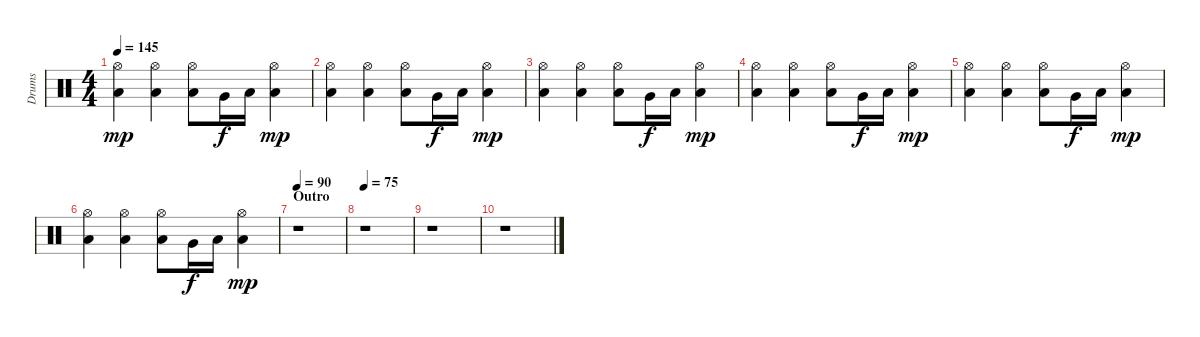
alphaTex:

\track ("Drums" "Drums") {instrument percussion}
\staff {score}
\articulation defaults
\ts (4 4)
\tempo 145
\clef neutral
\ks c
("Hi-Hat (open)" "Low Floor Tom (hit)").4{dy mp} ("Hi-Hat (open)" "Low Floor Tom (hit)").4 ("Hi-Hat (open)" "Low Floor Tom (hit)").8 "Very Low Tom (hit)".16{dy f} "Low Floor Tom (hit)".16 ("Hi-Hat (open)" "Low Floor Tom (hit)").4{dy mp} |
("Hi-Hat (open)" "Low Floor Tom (hit)").4 ("Hi-Hat (open)" "Low Floor Tom (hit)").4 ("Hi-Hat (open)" "Low Floor Tom (hit)").8 "Very Low Tom (hit)".16{dy f} "Low Floor Tom (hit)".16 ("Hi-Hat (open)" "Low Floor Tom (hit)").4{dy mp} |
("Hi-Hat (open)" "Low Floor Tom (hit)").4 ("Hi-Hat (open)" "Low Floor Tom (hit)").4 ("Hi-Hat (open)" "Low Floor Tom (hit)").8 "Very Low Tom (hit)".16{dy f} "Low Floor Tom (hit)".16 ("Hi-Hat (open)" "Low Floor Tom (hit)").4{dy mp} |
("Hi-Hat (open)" "Low Floor Tom (hit)").4 ("Hi-Hat (open)" "Low Floor Tom (hit)").4 ("Hi-Hat (open)" "Low Floor Tom (hit)").8 "Very Low Tom (hit)".16{dy f} "Low Floor Tom (hit)".16 ("Hi-Hat (open)" "Low Floor Tom (hit)").4{dy mp} |
("Hi-Hat (open)" "Low Floor Tom (hit)").4 ("Hi-Hat (open)" "Low Floor Tom (hit)").4 ("Hi-Hat (open)" "Low Floor Tom (hit)").8 "Very Low Tom (hit)".16{dy f} "Low Floor Tom (hit)".16 ("Hi-Hat (open)" "Low Floor Tom (hit)").4{dy mp} |
("Hi-Hat (open)" "Low Floor Tom (hit)").4 ("Hi-Hat (open)" "Low Floor Tom (hit)").4 ("Hi-Hat (open)" "Low Floor Tom (hit)").8 "Very Low Tom (hit)".16{dy f} "Low Floor Tom (hit)".16 ("Hi-Hat (open)" "Low Floor Tom (hit)").4{dy mp} |
\section ("" "Outro")
\tempo 90
r.1 |
\tempo 75
r.1 |
r.1 |
r.1
